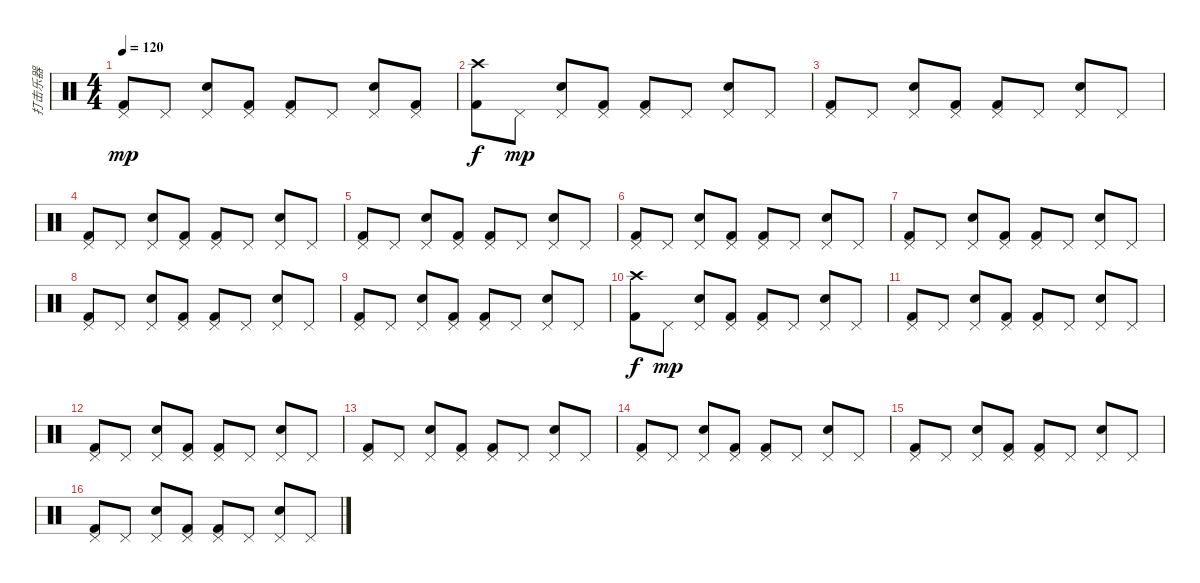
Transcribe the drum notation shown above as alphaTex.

\track ("打击乐器" "打击乐器") {instrument percussion}
\staff {score}
\articulation defaults
\ts (4 4)
\tempo 120
\clef neutral
\ks c
("Pedal Hi-Hat (hit)" "Kick (hit) 2").8{dy mp} "Pedal Hi-Hat (hit)".8 ("Pedal Hi-Hat (hit)" "Electric Snare (hit)").8 ("Pedal Hi-Hat (hit)" "Kick (hit) 2").8 ("Pedal Hi-Hat (hit)" "Kick (hit) 2").8 "Pedal Hi-Hat (hit)".8 ("Pedal Hi-Hat (hit)" "Electric Snare (hit)").8 ("Pedal Hi-Hat (hit)" "Kick (hit) 2").8 |
("Crash high (hit)" "Kick (hit) 2").8{dy f} "Pedal Hi-Hat (hit)".8{dy mp} ("Pedal Hi-Hat (hit)" "Electric Snare (hit)").8 ("Pedal Hi-Hat (hit)" "Kick (hit) 2").8 ("Pedal Hi-Hat (hit)" "Kick (hit) 2").8 "Pedal Hi-Hat (hit)".8 ("Pedal Hi-Hat (hit)" "Electric Snare (hit)").8 "Pedal Hi-Hat (hit)".8 |
("Pedal Hi-Hat (hit)" "Kick (hit) 2").8 "Pedal Hi-Hat (hit)".8 ("Pedal Hi-Hat (hit)" "Electric Snare (hit)").8 ("Pedal Hi-Hat (hit)" "Kick (hit) 2").8 ("Pedal Hi-Hat (hit)" "Kick (hit) 2").8 "Pedal Hi-Hat (hit)".8 ("Pedal Hi-Hat (hit)" "Electric Snare (hit)").8 "Pedal Hi-Hat (hit)".8 |
("Pedal Hi-Hat (hit)" "Kick (hit) 2").8 "Pedal Hi-Hat (hit)".8 ("Pedal Hi-Hat (hit)" "Electric Snare (hit)").8 ("Pedal Hi-Hat (hit)" "Kick (hit) 2").8 ("Pedal Hi-Hat (hit)" "Kick (hit) 2").8 "Pedal Hi-Hat (hit)".8 ("Pedal Hi-Hat (hit)" "Electric Snare (hit)").8 "Pedal Hi-Hat (hit)".8 |
("Pedal Hi-Hat (hit)" "Kick (hit) 2").8 "Pedal Hi-Hat (hit)".8 ("Pedal Hi-Hat (hit)" "Electric Snare (hit)").8 ("Pedal Hi-Hat (hit)" "Kick (hit) 2").8 ("Pedal Hi-Hat (hit)" "Kick (hit) 2").8 "Pedal Hi-Hat (hit)".8 ("Pedal Hi-Hat (hit)" "Electric Snare (hit)").8 "Pedal Hi-Hat (hit)".8 |
("Pedal Hi-Hat (hit)" "Kick (hit) 2").8 "Pedal Hi-Hat (hit)".8 ("Pedal Hi-Hat (hit)" "Electric Snare (hit)").8 ("Pedal Hi-Hat (hit)" "Kick (hit) 2").8 ("Pedal Hi-Hat (hit)" "Kick (hit) 2").8 "Pedal Hi-Hat (hit)".8 ("Pedal Hi-Hat (hit)" "Electric Snare (hit)").8 "Pedal Hi-Hat (hit)".8 |
("Pedal Hi-Hat (hit)" "Kick (hit) 2").8 "Pedal Hi-Hat (hit)".8 ("Pedal Hi-Hat (hit)" "Electric Snare (hit)").8 ("Pedal Hi-Hat (hit)" "Kick (hit) 2").8 ("Pedal Hi-Hat (hit)" "Kick (hit) 2").8 "Pedal Hi-Hat (hit)".8 ("Pedal Hi-Hat (hit)" "Electric Snare (hit)").8 "Pedal Hi-Hat (hit)".8 |
("Pedal Hi-Hat (hit)" "Kick (hit) 2").8 "Pedal Hi-Hat (hit)".8 ("Pedal Hi-Hat (hit)" "Electric Snare (hit)").8 ("Pedal Hi-Hat (hit)" "Kick (hit) 2").8 ("Pedal Hi-Hat (hit)" "Kick (hit) 2").8 "Pedal Hi-Hat (hit)".8 ("Pedal Hi-Hat (hit)" "Electric Snare (hit)").8 "Pedal Hi-Hat (hit)".8 |
("Pedal Hi-Hat (hit)" "Kick (hit) 2").8 "Pedal Hi-Hat (hit)".8 ("Pedal Hi-Hat (hit)" "Electric Snare (hit)").8 ("Pedal Hi-Hat (hit)" "Kick (hit) 2").8 ("Pedal Hi-Hat (hit)" "Kick (hit) 2").8 "Pedal Hi-Hat (hit)".8 ("Pedal Hi-Hat (hit)" "Electric Snare (hit)").8 "Pedal Hi-Hat (hit)".8 |
("Crash high (hit)" "Kick (hit) 2").8{dy f} "Pedal Hi-Hat (hit)".8{dy mp} ("Pedal Hi-Hat (hit)" "Electric Snare (hit)").8 ("Pedal Hi-Hat (hit)" "Kick (hit) 2").8 ("Pedal Hi-Hat (hit)" "Kick (hit) 2").8 "Pedal Hi-Hat (hit)".8 ("Pedal Hi-Hat (hit)" "Electric Snare (hit)").8 "Pedal Hi-Hat (hit)".8 |
("Pedal Hi-Hat (hit)" "Kick (hit) 2").8 "Pedal Hi-Hat (hit)".8 ("Pedal Hi-Hat (hit)" "Electric Snare (hit)").8 ("Pedal Hi-Hat (hit)" "Kick (hit) 2").8 ("Pedal Hi-Hat (hit)" "Kick (hit) 2").8 "Pedal Hi-Hat (hit)".8 ("Pedal Hi-Hat (hit)" "Electric Snare (hit)").8 "Pedal Hi-Hat (hit)".8 |
("Pedal Hi-Hat (hit)" "Kick (hit) 2").8 "Pedal Hi-Hat (hit)".8 ("Pedal Hi-Hat (hit)" "Electric Snare (hit)").8 ("Pedal Hi-Hat (hit)" "Kick (hit) 2").8 ("Pedal Hi-Hat (hit)" "Kick (hit) 2").8 "Pedal Hi-Hat (hit)".8 ("Pedal Hi-Hat (hit)" "Electric Snare (hit)").8 "Pedal Hi-Hat (hit)".8 |
("Pedal Hi-Hat (hit)" "Kick (hit) 2").8 "Pedal Hi-Hat (hit)".8 ("Pedal Hi-Hat (hit)" "Electric Snare (hit)").8 ("Pedal Hi-Hat (hit)" "Kick (hit) 2").8 ("Pedal Hi-Hat (hit)" "Kick (hit) 2").8 "Pedal Hi-Hat (hit)".8 ("Pedal Hi-Hat (hit)" "Electric Snare (hit)").8 "Pedal Hi-Hat (hit)".8 |
("Pedal Hi-Hat (hit)" "Kick (hit) 2").8 "Pedal Hi-Hat (hit)".8 ("Pedal Hi-Hat (hit)" "Electric Snare (hit)").8 ("Pedal Hi-Hat (hit)" "Kick (hit) 2").8 ("Pedal Hi-Hat (hit)" "Kick (hit) 2").8 "Pedal Hi-Hat (hit)".8 ("Pedal Hi-Hat (hit)" "Electric Snare (hit)").8 "Pedal Hi-Hat (hit)".8 |
("Pedal Hi-Hat (hit)" "Kick (hit) 2").8 "Pedal Hi-Hat (hit)".8 ("Pedal Hi-Hat (hit)" "Electric Snare (hit)").8 ("Pedal Hi-Hat (hit)" "Kick (hit) 2").8 ("Pedal Hi-Hat (hit)" "Kick (hit) 2").8 "Pedal Hi-Hat (hit)".8 ("Pedal Hi-Hat (hit)" "Electric Snare (hit)").8 "Pedal Hi-Hat (hit)".8 |
("Pedal Hi-Hat (hit)" "Kick (hit) 2").8 "Pedal Hi-Hat (hit)".8 ("Pedal Hi-Hat (hit)" "Electric Snare (hit)").8 ("Pedal Hi-Hat (hit)" "Kick (hit) 2").8 ("Pedal Hi-Hat (hit)" "Kick (hit) 2").8 "Pedal Hi-Hat (hit)".8 ("Pedal Hi-Hat (hit)" "Electric Snare (hit)").8 "Pedal Hi-Hat (hit)".8
